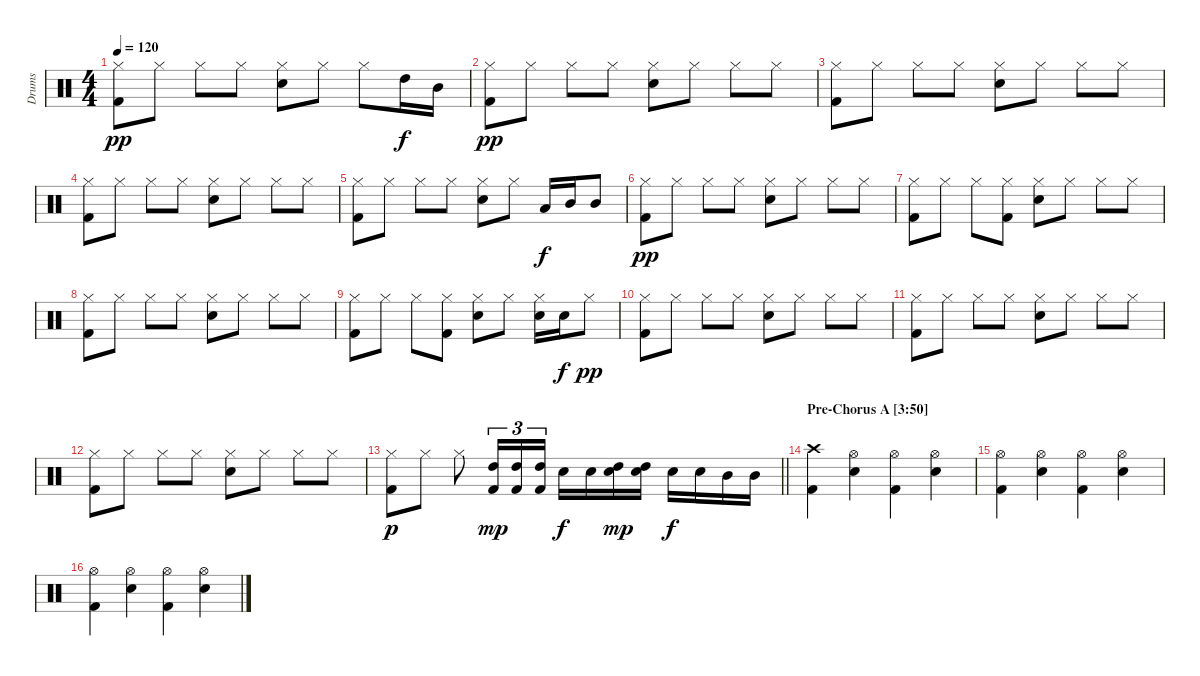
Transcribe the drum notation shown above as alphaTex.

\track ("Drums" "Drums") {instrument percussion}
\staff {score}
\articulation defaults
\ts (4 4)
\tempo 120
\clef neutral
\ks c
("Hi-Hat (closed)" "Kick (hit) 2").8{dy pp} "Hi-Hat (closed)".8 "Hi-Hat (closed)".8 "Hi-Hat (closed)".8 ("Hi-Hat (closed)" "Snare (hit) 2").8 "Hi-Hat (closed)".8 "Hi-Hat (closed)".8 "High Tom (hit)".16{dy f} "Mid Tom (hit)".16 |
("Hi-Hat (closed)" "Kick (hit) 2").8{dy pp} "Hi-Hat (closed)".8 "Hi-Hat (closed)".8 "Hi-Hat (closed)".8 ("Hi-Hat (closed)" "Snare (hit) 2").8 "Hi-Hat (closed)".8 "Hi-Hat (closed)".8 "Hi-Hat (closed)".8 |
("Hi-Hat (closed)" "Kick (hit) 2").8 "Hi-Hat (closed)".8 "Hi-Hat (closed)".8 "Hi-Hat (closed)".8 ("Hi-Hat (closed)" "Snare (hit) 2").8 "Hi-Hat (closed)".8 "Hi-Hat (closed)".8 "Hi-Hat (closed)".8 |
("Hi-Hat (closed)" "Kick (hit) 2").8 "Hi-Hat (closed)".8 "Hi-Hat (closed)".8 "Hi-Hat (closed)".8 ("Hi-Hat (closed)" "Snare (hit) 2").8 "Hi-Hat (closed)".8 "Hi-Hat (closed)".8 "Hi-Hat (closed)".8 |
("Hi-Hat (closed)" "Kick (hit) 2").8 "Hi-Hat (closed)".8 "Hi-Hat (closed)".8 "Hi-Hat (closed)".8 ("Hi-Hat (closed)" "Snare (hit) 2").8 "Hi-Hat (closed)".8 "Low Tom (hit)".16{dy f} "Mid Tom (hit)".16 "Mid Tom (hit)".8 |
("Hi-Hat (closed)" "Kick (hit) 2").8{dy pp} "Hi-Hat (closed)".8 "Hi-Hat (closed)".8 "Hi-Hat (closed)".8 ("Hi-Hat (closed)" "Snare (hit) 2").8 "Hi-Hat (closed)".8 "Hi-Hat (closed)".8 "Hi-Hat (closed)".8 |
("Hi-Hat (closed)" "Kick (hit) 2").8 "Hi-Hat (closed)".8 "Hi-Hat (closed)".8 ("Hi-Hat (closed)" "Kick (hit) 2").8 ("Hi-Hat (closed)" "Snare (hit) 2").8 "Hi-Hat (closed)".8 "Hi-Hat (closed)".8 "Hi-Hat (closed)".8 |
("Hi-Hat (closed)" "Kick (hit) 2").8 "Hi-Hat (closed)".8 "Hi-Hat (closed)".8 "Hi-Hat (closed)".8 ("Hi-Hat (closed)" "Snare (hit) 2").8 "Hi-Hat (closed)".8 "Hi-Hat (closed)".8 "Hi-Hat (closed)".8 |
("Hi-Hat (closed)" "Kick (hit) 2").8 "Hi-Hat (closed)".8 "Hi-Hat (closed)".8 ("Hi-Hat (closed)" "Kick (hit) 2").8 ("Hi-Hat (closed)" "Snare (hit) 2").8 "Hi-Hat (closed)".8 ("Hi-Hat (closed)" "Snare (hit) 2").16 "Snare (hit) 2".16{dy f} "Hi-Hat (closed)".8{dy pp} |
("Hi-Hat (closed)" "Kick (hit) 2").8 "Hi-Hat (closed)".8 "Hi-Hat (closed)".8 "Hi-Hat (closed)".8 ("Hi-Hat (closed)" "Snare (hit) 2").8 "Hi-Hat (closed)".8 "Hi-Hat (closed)".8 "Hi-Hat (closed)".8 |
("Hi-Hat (closed)" "Kick (hit) 2").8 "Hi-Hat (closed)".8 "Hi-Hat (closed)".8 "Hi-Hat (closed)".8 ("Hi-Hat (closed)" "Snare (hit) 2").8 "Hi-Hat (closed)".8 "Hi-Hat (closed)".8 "Hi-Hat (closed)".8 |
("Hi-Hat (closed)" "Kick (hit) 2").8 "Hi-Hat (closed)".8 "Hi-Hat (closed)".8 "Hi-Hat (closed)".8 ("Hi-Hat (closed)" "Snare (hit) 2").8 "Hi-Hat (closed)".8 "Hi-Hat (closed)".8 "Hi-Hat (closed)".8 |
\barLineRight lightlight
("Hi-Hat (closed)" "Kick (hit) 2").8{dy p} "Hi-Hat (closed)".8 "Hi-Hat (closed)".8 ("High Tom (hit)" "Kick (hit) 2").16{tu (3 2) dy mp} ("High Tom (hit)" "Kick (hit) 2").16{tu (3 2)} ("High Tom (hit)" "Kick (hit) 2").16{tu (3 2)} "Snare (hit) 2".16{dy f} "Snare (hit) 2".16 ("High Tom (hit)" "Snare (hit) 2").16{dy mp} ("High Tom (hit)" "Snare (hit) 2").16 "Snare (hit) 2".16{dy f} "Snare (hit) 2".16 "Mid Tom (hit)".16 "Mid Tom (hit)".16 |
\section ("" "Pre-Chorus A [3:50]")
("Crash high (hit)" "Kick (hit) 2").4 ("Hi-Hat (open)" "Snare (hit) 2").4 ("Hi-Hat (open)" "Kick (hit) 2").4 ("Hi-Hat (open)" "Snare (hit) 2").4 |
("Hi-Hat (open)" "Kick (hit) 2").4 ("Hi-Hat (open)" "Snare (hit) 2").4 ("Hi-Hat (open)" "Kick (hit) 2").4 ("Hi-Hat (open)" "Snare (hit) 2").4 |
("Hi-Hat (open)" "Kick (hit) 2").4 ("Hi-Hat (open)" "Snare (hit) 2").4 ("Hi-Hat (open)" "Kick (hit) 2").4 ("Hi-Hat (open)" "Snare (hit) 2").4
